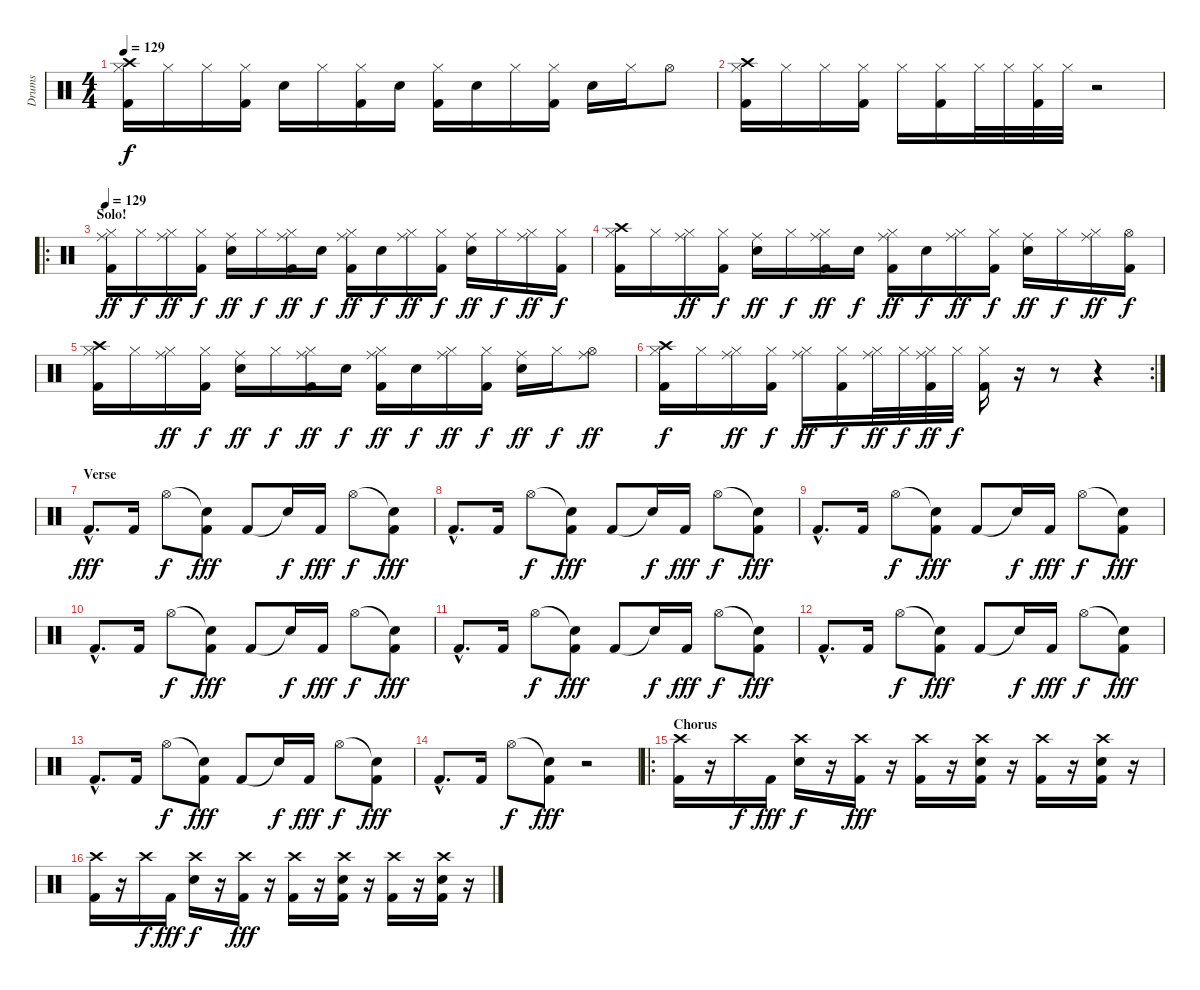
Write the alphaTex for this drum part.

\track ("Drums" "Drums") {instrument percussion}
\staff {score}
\articulation defaults
\ts (4 4)
\tempo 129
\clef neutral
\ks c
("Crash high (hit)" "Hi-Hat (closed)" "Kick (hit) 2").16{dy f} "Hi-Hat (closed)".16 "Hi-Hat (closed)".16 ("Hi-Hat (closed)" "Kick (hit) 2").16 "Electric Snare (hit)".16 "Hi-Hat (closed)".16 ("Hi-Hat (closed)" "Kick (hit) 2").16 "Electric Snare (hit)".16 ("Hi-Hat (closed)" "Kick (hit) 2").16 "Electric Snare (hit)".16 "Hi-Hat (closed)".16 ("Hi-Hat (closed)" "Kick (hit) 2").16 "Electric Snare (hit)".16 "Hi-Hat (closed)".16 "Hi-Hat (open)".8 |
("Crash high (hit)" "Hi-Hat (closed)" "Kick (hit) 2").16 "Hi-Hat (closed)".16 "Hi-Hat (closed)".16 ("Hi-Hat (closed)" "Kick (hit) 2").16 "Hi-Hat (closed)".16 ("Hi-Hat (closed)" "Kick (hit) 2").16 "Hi-Hat (closed)".32 "Hi-Hat (closed)".32 ("Hi-Hat (closed)" "Kick (hit) 2").32 "Hi-Hat (closed)".32 r.2 |
\ro
\section ("" "Solo!")
\tempo 129
("Ride (middle)" "Hi-Hat (closed)" "Kick (hit) 2").16{dy ff} "Hi-Hat (closed)".16{dy f} ("Ride (middle)" "Hi-Hat (closed)").16{dy ff} ("Hi-Hat (closed)" "Kick (hit) 2").16{dy f} ("Ride (middle)" "Electric Snare (hit)").16{dy ff} "Hi-Hat (closed)".16{dy f} ("Ride (middle)" "Hi-Hat (closed)" "Kick (hit) 2").16{dy ff} "Electric Snare (hit)".16{dy f} ("Ride (middle)" "Hi-Hat (closed)" "Kick (hit) 2").16{dy ff} "Electric Snare (hit)".16{dy f} ("Ride (middle)" "Hi-Hat (closed)").16{dy ff} ("Hi-Hat (closed)" "Kick (hit) 2").16{dy f} ("Ride (middle)" "Electric Snare (hit)").16{dy ff} "Hi-Hat (closed)".16{dy f} ("Ride (middle)" "Hi-Hat (closed)").16{dy ff} ("Hi-Hat (closed)" "Kick (hit) 2").16{dy f} |
("Crash high (hit)" "Hi-Hat (closed)" "Kick (hit) 2").16 "Hi-Hat (closed)".16 ("Ride (middle)" "Hi-Hat (closed)").16{dy ff} ("Hi-Hat (closed)" "Kick (hit) 2").16{dy f} ("Ride (middle)" "Electric Snare (hit)").16{dy ff} "Hi-Hat (closed)".16{dy f} ("Ride (middle)" "Hi-Hat (closed)" "Kick (hit) 2").16{dy ff} "Electric Snare (hit)".16{dy f} ("Ride (middle)" "Hi-Hat (closed)" "Kick (hit) 2").16{dy ff} "Electric Snare (hit)".16{dy f} ("Ride (middle)" "Hi-Hat (closed)").16{dy ff} ("Hi-Hat (closed)" "Kick (hit) 2").16{dy f} ("Ride (middle)" "Electric Snare (hit)").16{dy ff} "Hi-Hat (closed)".16{dy f} ("Ride (middle)" "Hi-Hat (closed)").16{dy ff} ("Hi-Hat (open)" "Kick (hit) 2").16{dy f} |
("Crash high (hit)" "Hi-Hat (closed)" "Kick (hit) 2").16 "Hi-Hat (closed)".16 ("Ride (middle)" "Hi-Hat (closed)").16{dy ff} ("Hi-Hat (closed)" "Kick (hit) 2").16{dy f} ("Ride (middle)" "Electric Snare (hit)").16{dy ff} "Hi-Hat (closed)".16{dy f} ("Ride (middle)" "Hi-Hat (closed)" "Kick (hit) 2").16{dy ff} "Electric Snare (hit)".16{dy f} ("Ride (middle)" "Hi-Hat (closed)" "Kick (hit) 2").16{dy ff} "Electric Snare (hit)".16{dy f} ("Ride (middle)" "Hi-Hat (closed)").16{dy ff} ("Hi-Hat (closed)" "Kick (hit) 2").16{dy f} ("Ride (middle)" "Electric Snare (hit)").16{dy ff} "Hi-Hat (closed)".16{dy f} ("Ride (middle)" "Hi-Hat (open)").8{dy ff} |
\rc 2
("Crash high (hit)" "Hi-Hat (closed)" "Kick (hit) 2").16{dy f} "Hi-Hat (closed)".16 ("Ride (middle)" "Hi-Hat (closed)").16{dy ff} ("Hi-Hat (closed)" "Kick (hit) 2").16{dy f} ("Ride (middle)" "Hi-Hat (closed)").16{dy ff} ("Hi-Hat (closed)" "Kick (hit) 2").16{dy f} ("Ride (middle)" "Hi-Hat (closed)").32{dy ff} "Hi-Hat (closed)".32{dy f} ("Ride (middle)" "Hi-Hat (closed)" "Kick (hit) 2").32{dy ff} "Hi-Hat (closed)".32{dy f} ("Hi-Hat (closed)" "Kick (hit) 2").16 r.16 r.8 r.4 |
\section ("" "Verse")
"Kick (hit) 2"{hac}.8{d dy fff} "Kick (hit) 2".16 "Hi-Hat (open)".8{dy f} ("Snare (hit)"{t} "Kick (hit) 2").8{dy fff} "Kick (hit) 2".8 "Snare (hit)"{t}.16{dy f} "Kick (hit) 2".16{dy fff} "Hi-Hat (open)".8{dy f} ("Snare (hit)"{t} "Kick (hit) 2").8{dy fff} |
"Kick (hit) 2"{hac}.8{d} "Kick (hit) 2".16 "Hi-Hat (open)".8{dy f} ("Snare (hit)"{t} "Kick (hit) 2").8{dy fff} "Kick (hit) 2".8 "Snare (hit)"{t}.16{dy f} "Kick (hit) 2".16{dy fff} "Hi-Hat (open)".8{dy f} ("Snare (hit)"{t} "Kick (hit) 2").8{dy fff} |
"Kick (hit) 2"{hac}.8{d} "Kick (hit) 2".16 "Hi-Hat (open)".8{dy f} ("Snare (hit)"{t} "Kick (hit) 2").8{dy fff} "Kick (hit) 2".8 "Snare (hit)"{t}.16{dy f} "Kick (hit) 2".16{dy fff} "Hi-Hat (open)".8{dy f} ("Snare (hit)"{t} "Kick (hit) 2").8{dy fff} |
"Kick (hit) 2"{hac}.8{d} "Kick (hit) 2".16 "Hi-Hat (open)".8{dy f} ("Snare (hit)"{t} "Kick (hit) 2").8{dy fff} "Kick (hit) 2".8 "Snare (hit)"{t}.16{dy f} "Kick (hit) 2".16{dy fff} "Hi-Hat (open)".8{dy f} ("Snare (hit)"{t} "Kick (hit) 2").8{dy fff} |
"Kick (hit) 2"{hac}.8{d} "Kick (hit) 2".16 "Hi-Hat (open)".8{dy f} ("Snare (hit)"{t} "Kick (hit) 2").8{dy fff} "Kick (hit) 2".8 "Snare (hit)"{t}.16{dy f} "Kick (hit) 2".16{dy fff} "Hi-Hat (open)".8{dy f} ("Snare (hit)"{t} "Kick (hit) 2").8{dy fff} |
"Kick (hit) 2"{hac}.8{d} "Kick (hit) 2".16 "Hi-Hat (open)".8{dy f} ("Snare (hit)"{t} "Kick (hit) 2").8{dy fff} "Kick (hit) 2".8 "Snare (hit)"{t}.16{dy f} "Kick (hit) 2".16{dy fff} "Hi-Hat (open)".8{dy f} ("Snare (hit)"{t} "Kick (hit) 2").8{dy fff} |
"Kick (hit) 2"{hac}.8{d} "Kick (hit) 2".16 "Hi-Hat (open)".8{dy f} ("Snare (hit)"{t} "Kick (hit) 2").8{dy fff} "Kick (hit) 2".8 "Snare (hit)"{t}.16{dy f} "Kick (hit) 2".16{dy fff} "Hi-Hat (open)".8{dy f} ("Snare (hit)"{t} "Kick (hit) 2").8{dy fff} |
"Kick (hit) 2"{hac}.8{d} "Kick (hit) 2".16 "Hi-Hat (open)".8{dy f} ("Snare (hit)"{t} "Kick (hit) 2").8{dy fff} r.2 |
\ro
\section ("" "Chorus")
("Crash high (hit)" "Kick (hit) 2").16 r.16 "Crash high (hit)".16{dy f} "Kick (hit) 2".16{dy fff} ("Crash high (hit)" "Electric Snare (hit)").16{dy f} r.16 ("Crash high (hit)" "Kick (hit) 2").16{dy fff} r.16 ("Crash high (hit)" "Kick (hit) 2").16 r.16 ("Crash high (hit)" "Electric Snare (hit)" "Kick (hit) 2").16 r.16 ("Crash high (hit)" "Kick (hit) 2").16 r.16 ("Crash high (hit)" "Electric Snare (hit)" "Kick (hit) 2").16 r.16 |
("Crash high (hit)" "Kick (hit) 2").16 r.16 "Crash high (hit)".16{dy f} "Kick (hit) 2".16{dy fff} ("Crash high (hit)" "Electric Snare (hit)").16{dy f} r.16 ("Crash high (hit)" "Kick (hit) 2").16{dy fff} r.16 ("Crash high (hit)" "Kick (hit) 2").16 r.16 ("Crash high (hit)" "Electric Snare (hit)" "Kick (hit) 2").16 r.16 ("Crash high (hit)" "Kick (hit) 2").16 r.16 ("Crash high (hit)" "Electric Snare (hit)" "Kick (hit) 2").16 r.16
